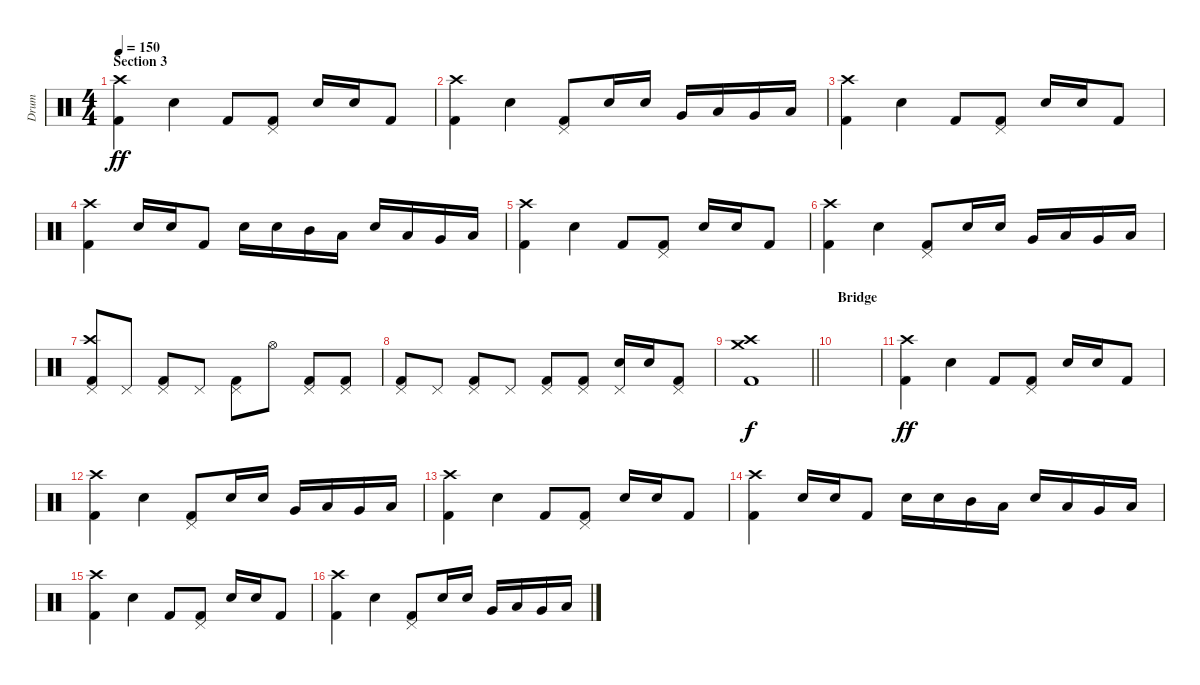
\track ("Drum" "Drum") {instrument percussion}
\staff {score}
\articulation defaults
\ts (4 4)
\section ("" "Section 3")
\tempo 150
\clef neutral
\ks c
("Kick (hit) 2" "Crash high (hit)").4{dy ff} "Electric Snare (hit)".4 "Kick (hit) 2".8 ("Kick (hit) 2" "Pedal Hi-Hat (hit)").8 "Electric Snare (hit)".16 "Snare (hit) 2".16 "Kick (hit) 2".8 |
("Kick (hit) 2" "Crash high (hit)").4 "Electric Snare (hit)".4 ("Kick (hit) 2" "Pedal Hi-Hat (hit)").8 "Electric Snare (hit)".16 "Snare (hit) 2".16 "Very Low Tom (hit)".16 "Low Tom (hit)".16 "Very Low Tom (hit)".16 "Low Floor Tom (hit)".16 |
("Kick (hit) 2" "Crash high (hit)").4 "Electric Snare (hit)".4 "Kick (hit) 2".8 ("Kick (hit) 2" "Pedal Hi-Hat (hit)").8 "Electric Snare (hit)".16 "Snare (hit) 2".16 "Kick (hit) 2".8 |
("Kick (hit) 2" "Crash high (hit)").4 "Electric Snare (hit)".16 "Electric Snare (hit)".16 "Kick (hit) 2".8 "Electric Snare (hit)".16 "Electric Snare (hit)".16 "Mid Tom (hit)".16 "Low Tom (hit)".16 "Electric Snare (hit)".16 "Low Tom (hit)".16 "Very Low Tom (hit)".16 "Low Floor Tom (hit)".16 |
("Kick (hit) 2" "Crash high (hit)").4 "Electric Snare (hit)".4 "Kick (hit) 2".8 ("Kick (hit) 2" "Pedal Hi-Hat (hit)").8 "Electric Snare (hit)".16 "Snare (hit) 2".16 "Kick (hit) 2".8 |
("Kick (hit) 2" "Crash high (hit)").4 "Electric Snare (hit)".4 ("Kick (hit) 2" "Pedal Hi-Hat (hit)").8 "Electric Snare (hit)".16 "Snare (hit) 2".16 "Very Low Tom (hit)".16 "Low Tom (hit)".16 "Very Low Tom (hit)".16 "Low Floor Tom (hit)".16 |
("Pedal Hi-Hat (hit)" "Kick (hit) 2" "Crash high (hit)").8 "Pedal Hi-Hat (hit)".8 ("Pedal Hi-Hat (hit)" "Kick (hit) 2").8 "Pedal Hi-Hat (hit)".8 ("Pedal Hi-Hat (hit)" "Kick (hit) 2").8 "Hi-Hat (open)".8 ("Pedal Hi-Hat (hit)" "Kick (hit) 2").8 ("Pedal Hi-Hat (hit)" "Kick (hit) 2").8 |
("Pedal Hi-Hat (hit)" "Kick (hit) 2").8 "Pedal Hi-Hat (hit)".8 ("Pedal Hi-Hat (hit)" "Kick (hit) 2").8 "Pedal Hi-Hat (hit)".8 ("Pedal Hi-Hat (hit)" "Kick (hit) 2").8 ("Kick (hit) 2" "Pedal Hi-Hat (hit)").8 ("Electric Snare (hit)" "Pedal Hi-Hat (hit)").16 "Electric Snare (hit)".16 ("Kick (hit) 2" "Pedal Hi-Hat (hit)").8 |
\barLineRight lightlight
("Crash high (hit)" "Crash medium (hit)" "Kick (hit) 2").1{dy f} |
\section ("" "Bridge")
|
("Kick (hit) 2" "Crash high (hit)").4{dy ff} "Electric Snare (hit)".4 "Kick (hit) 2".8 ("Kick (hit) 2" "Pedal Hi-Hat (hit)").8 "Electric Snare (hit)".16 "Snare (hit) 2".16 "Kick (hit) 2".8 |
("Kick (hit) 2" "Crash high (hit)").4 "Electric Snare (hit)".4 ("Kick (hit) 2" "Pedal Hi-Hat (hit)").8 "Electric Snare (hit)".16 "Snare (hit) 2".16 "Very Low Tom (hit)".16 "Low Tom (hit)".16 "Very Low Tom (hit)".16 "Low Floor Tom (hit)".16 |
("Kick (hit) 2" "Crash high (hit)").4 "Electric Snare (hit)".4 "Kick (hit) 2".8 ("Kick (hit) 2" "Pedal Hi-Hat (hit)").8 "Electric Snare (hit)".16 "Snare (hit) 2".16 "Kick (hit) 2".8 |
("Kick (hit) 2" "Crash high (hit)").4 "Electric Snare (hit)".16 "Electric Snare (hit)".16 "Kick (hit) 2".8 "Electric Snare (hit)".16 "Electric Snare (hit)".16 "Mid Tom (hit)".16 "Low Tom (hit)".16 "Electric Snare (hit)".16 "Low Tom (hit)".16 "Very Low Tom (hit)".16 "Low Floor Tom (hit)".16 |
("Kick (hit) 2" "Crash high (hit)").4 "Electric Snare (hit)".4 "Kick (hit) 2".8 ("Kick (hit) 2" "Pedal Hi-Hat (hit)").8 "Electric Snare (hit)".16 "Snare (hit) 2".16 "Kick (hit) 2".8 |
("Kick (hit) 2" "Crash high (hit)").4 "Electric Snare (hit)".4 ("Kick (hit) 2" "Pedal Hi-Hat (hit)").8 "Electric Snare (hit)".16 "Snare (hit) 2".16 "Very Low Tom (hit)".16 "Low Tom (hit)".16 "Very Low Tom (hit)".16 "Low Floor Tom (hit)".16
